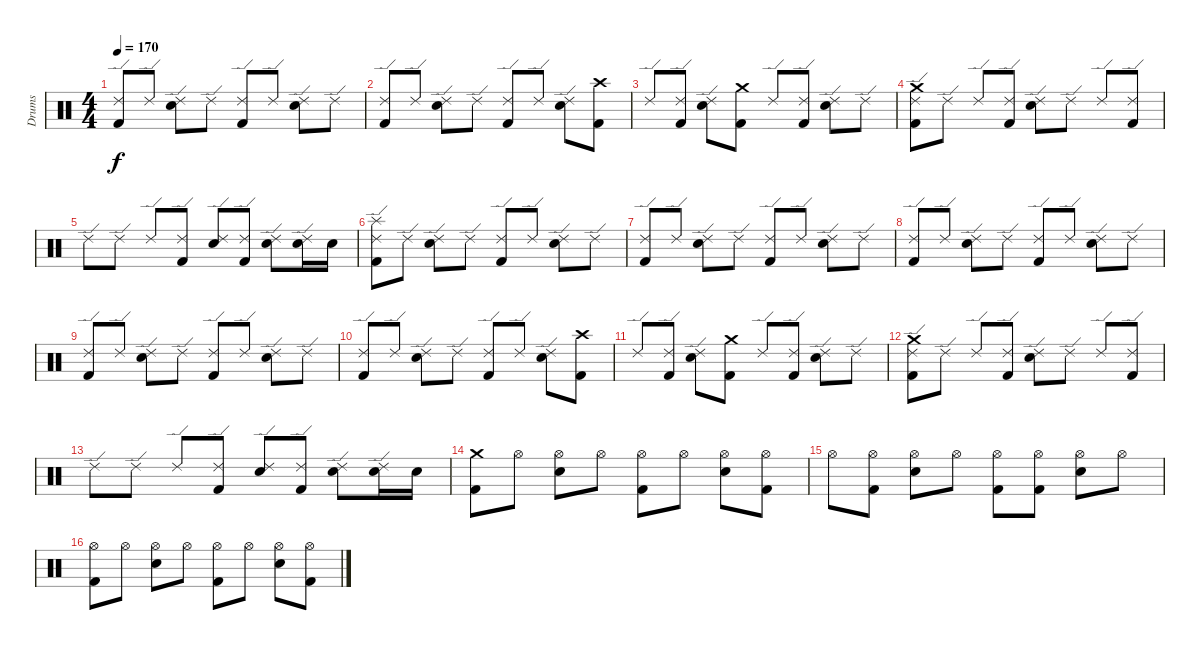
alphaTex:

\track ("Drums" "Drums") {instrument percussion}
\staff {score}
\articulation defaults
\ts (4 4)
\tempo 170
\clef neutral
\ks c
("Kick (hit) 2" "Ride (edge) 2").8{dy f} "Ride (edge) 2".8 ("Electric Snare (hit)" "Ride (edge) 2").8 "Ride (edge) 2".8 ("Kick (hit) 2" "Ride (edge) 2").8 "Ride (edge) 2".8 ("Electric Snare (hit)" "Ride (edge) 2").8 "Ride (edge) 2".8 |
("Kick (hit) 2" "Ride (edge) 2").8 "Ride (edge) 2".8 ("Electric Snare (hit)" "Ride (edge) 2").8 "Ride (edge) 2".8 ("Kick (hit) 2" "Ride (edge) 2").8 "Ride (edge) 2".8 ("Electric Snare (hit)" "Ride (edge) 2").8 ("Kick (hit) 2" "Crash high (hit)").8 |
"Ride (edge) 2".8 ("Kick (hit) 2" "Ride (edge) 2").8 ("Electric Snare (hit)" "Ride (edge) 2").8 ("Kick (hit) 2" "Crash medium (hit)").8 "Ride (edge) 2".8 ("Kick (hit) 2" "Ride (edge) 2").8 ("Electric Snare (hit)" "Ride (edge) 2").8 "Ride (edge) 2".8 |
("Kick (hit) 2" "Ride (edge) 2" "Crash medium (hit)").8 "Ride (edge) 2".8 "Ride (edge) 2".8 ("Kick (hit) 2" "Ride (edge) 2").8 ("Electric Snare (hit)" "Ride (edge) 2").8 "Ride (edge) 2".8 "Ride (edge) 2".8 ("Kick (hit) 2" "Ride (edge) 2").8 |
"Ride (edge) 2".8 "Ride (edge) 2".8 "Ride (edge) 2".8 ("Kick (hit) 2" "Ride (edge) 2").8 ("Electric Snare (hit)" "Ride (edge) 2").8 ("Kick (hit) 2" "Ride (edge) 2").8 ("Electric Snare (hit)" "Ride (edge) 2").8 ("Electric Snare (hit)" "Ride (edge) 2").16 "Electric Snare (hit)".16 |
("Kick (hit) 2" "Ride (edge) 2" "Splash (hit)").8 "Ride (edge) 2".8 ("Electric Snare (hit)" "Ride (edge) 2").8 "Ride (edge) 2".8 ("Kick (hit) 2" "Ride (edge) 2").8 "Ride (edge) 2".8 ("Electric Snare (hit)" "Ride (edge) 2").8 "Ride (edge) 2".8 |
("Kick (hit) 2" "Ride (edge) 2").8 "Ride (edge) 2".8 ("Electric Snare (hit)" "Ride (edge) 2").8 "Ride (edge) 2".8 ("Kick (hit) 2" "Ride (edge) 2").8 "Ride (edge) 2".8 ("Electric Snare (hit)" "Ride (edge) 2").8 "Ride (edge) 2".8 |
("Kick (hit) 2" "Ride (edge) 2").8 "Ride (edge) 2".8 ("Electric Snare (hit)" "Ride (edge) 2").8 "Ride (edge) 2".8 ("Kick (hit) 2" "Ride (edge) 2").8 "Ride (edge) 2".8 ("Electric Snare (hit)" "Ride (edge) 2").8 "Ride (edge) 2".8 |
("Kick (hit) 2" "Ride (edge) 2").8 "Ride (edge) 2".8 ("Electric Snare (hit)" "Ride (edge) 2").8 "Ride (edge) 2".8 ("Kick (hit) 2" "Ride (edge) 2").8 "Ride (edge) 2".8 ("Electric Snare (hit)" "Ride (edge) 2").8 "Ride (edge) 2".8 |
("Kick (hit) 2" "Ride (edge) 2").8 "Ride (edge) 2".8 ("Electric Snare (hit)" "Ride (edge) 2").8 "Ride (edge) 2".8 ("Kick (hit) 2" "Ride (edge) 2").8 "Ride (edge) 2".8 ("Electric Snare (hit)" "Ride (edge) 2").8 ("Kick (hit) 2" "Crash high (hit)").8 |
"Ride (edge) 2".8 ("Kick (hit) 2" "Ride (edge) 2").8 ("Electric Snare (hit)" "Ride (edge) 2").8 ("Kick (hit) 2" "Crash medium (hit)").8 "Ride (edge) 2".8 ("Kick (hit) 2" "Ride (edge) 2").8 ("Electric Snare (hit)" "Ride (edge) 2").8 "Ride (edge) 2".8 |
("Kick (hit) 2" "Ride (edge) 2" "Crash medium (hit)").8 "Ride (edge) 2".8 "Ride (edge) 2".8 ("Kick (hit) 2" "Ride (edge) 2").8 ("Electric Snare (hit)" "Ride (edge) 2").8 "Ride (edge) 2".8 "Ride (edge) 2".8 ("Kick (hit) 2" "Ride (edge) 2").8 |
"Ride (edge) 2".8 "Ride (edge) 2".8 "Ride (edge) 2".8 ("Kick (hit) 2" "Ride (edge) 2").8 ("Electric Snare (hit)" "Ride (edge) 2").8 ("Kick (hit) 2" "Ride (edge) 2").8 ("Electric Snare (hit)" "Ride (edge) 2").8 ("Electric Snare (hit)" "Ride (edge) 2").16 "Electric Snare (hit)".16 |
("Kick (hit) 2" "Crash medium (hit)").8 "Hi-Hat (open)".8 ("Electric Snare (hit)" "Hi-Hat (open)").8 "Hi-Hat (open)".8 ("Kick (hit) 2" "Hi-Hat (open)").8 "Hi-Hat (open)".8 ("Electric Snare (hit)" "Hi-Hat (open)").8 ("Kick (hit) 2" "Hi-Hat (open)").8 |
"Hi-Hat (open)".8 ("Kick (hit) 2" "Hi-Hat (open)").8 ("Electric Snare (hit)" "Hi-Hat (open)").8 "Hi-Hat (open)".8 ("Kick (hit) 2" "Hi-Hat (open)").8 ("Kick (hit) 2" "Hi-Hat (open)").8 ("Electric Snare (hit)" "Hi-Hat (open)").8 "Hi-Hat (open)".8 |
("Kick (hit) 2" "Hi-Hat (open)").8 "Hi-Hat (open)".8 ("Electric Snare (hit)" "Hi-Hat (open)").8 "Hi-Hat (open)".8 ("Kick (hit) 2" "Hi-Hat (open)").8 "Hi-Hat (open)".8 ("Electric Snare (hit)" "Hi-Hat (open)").8 ("Kick (hit) 2" "Hi-Hat (open)").8
